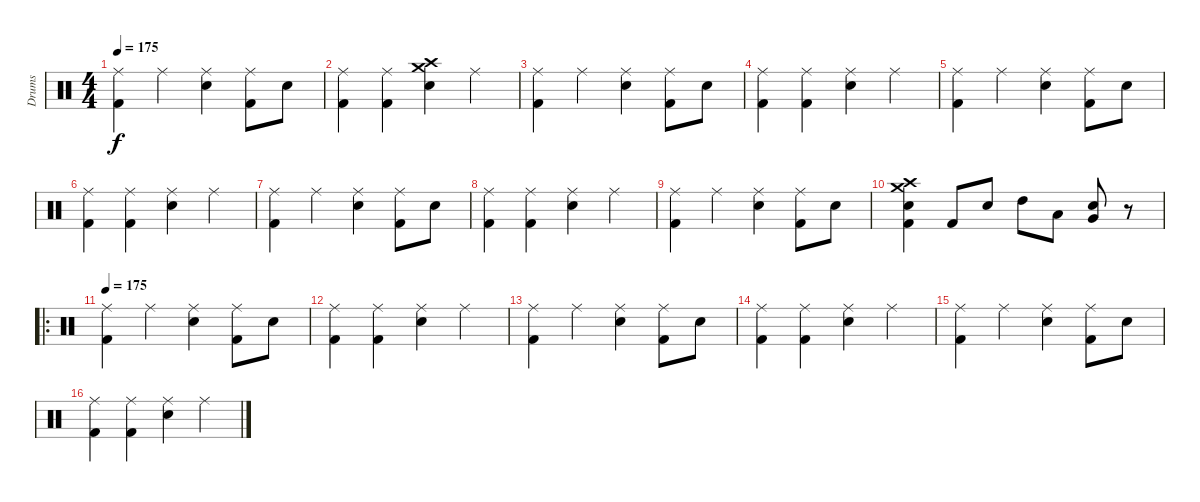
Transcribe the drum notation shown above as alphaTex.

\track ("Drums" "Drums") {instrument percussion}
\staff {score}
\articulation defaults
\ts (4 4)
\tempo 175
\clef neutral
\ks c
("Ride (middle)" "Kick (hit) 2").4{dy f} "Ride (middle)".4 ("Ride (middle)" "Snare (hit) 2").4 ("Ride (middle)" "Kick (hit) 2").8 "Snare (hit) 2".8 |
("Ride (middle)" "Kick (hit) 2").4 ("Ride (middle)" "Kick (hit) 2").4 ("Crash medium (hit)" "Crash high (hit)" "Snare (hit) 2").4 "Ride (middle)".4 |
("Ride (middle)" "Kick (hit) 2").4 "Ride (middle)".4 ("Ride (middle)" "Snare (hit) 2").4 ("Ride (middle)" "Kick (hit) 2").8 "Snare (hit) 2".8 |
("Ride (middle)" "Kick (hit) 2").4 ("Ride (middle)" "Kick (hit) 2").4 ("Ride (middle)" "Snare (hit) 2").4 "Ride (middle)".4 |
("Ride (middle)" "Kick (hit) 2").4 "Ride (middle)".4 ("Ride (middle)" "Snare (hit) 2").4 ("Ride (middle)" "Kick (hit) 2").8 "Snare (hit) 2".8 |
("Ride (middle)" "Kick (hit) 2").4 ("Ride (middle)" "Kick (hit) 2").4 ("Ride (middle)" "Snare (hit) 2").4 "Ride (middle)".4 |
("Ride (middle)" "Kick (hit) 2").4 "Ride (middle)".4 ("Ride (middle)" "Snare (hit) 2").4 ("Ride (middle)" "Kick (hit) 2").8 "Snare (hit) 2".8 |
("Ride (middle)" "Kick (hit) 2").4 ("Ride (middle)" "Kick (hit) 2").4 ("Ride (middle)" "Snare (hit) 2").4 "Ride (middle)".4 |
("Ride (middle)" "Kick (hit) 2").4 "Ride (middle)".4 ("Ride (middle)" "Snare (hit) 2").4 ("Ride (middle)" "Kick (hit) 2").8 "Snare (hit) 2".8 |
("Crash medium (hit)" "Crash high (hit)" "Snare (hit) 2" "Kick (hit) 2").4 "Kick (hit) 2".8 "Snare (hit) 2".8 "High Tom (hit)".8 "Low Tom (hit)".8 ("Snare (hit) 2" "Very Low Tom (hit)").8 r.8 |
\ro
\tempo 175
("Ride (middle)" "Kick (hit) 2").4 "Ride (middle)".4 ("Ride (middle)" "Snare (hit) 2").4 ("Ride (middle)" "Kick (hit) 2").8 "Snare (hit) 2".8 |
("Ride (middle)" "Kick (hit) 2").4 ("Ride (middle)" "Kick (hit) 2").4 ("Ride (middle)" "Snare (hit) 2").4 "Ride (middle)".4 |
("Ride (middle)" "Kick (hit) 2").4 "Ride (middle)".4 ("Ride (middle)" "Snare (hit) 2").4 ("Ride (middle)" "Kick (hit) 2").8 "Snare (hit) 2".8 |
("Ride (middle)" "Kick (hit) 2").4 ("Ride (middle)" "Kick (hit) 2").4 ("Ride (middle)" "Snare (hit) 2").4 "Ride (middle)".4 |
("Ride (middle)" "Kick (hit) 2").4 "Ride (middle)".4 ("Ride (middle)" "Snare (hit) 2").4 ("Ride (middle)" "Kick (hit) 2").8 "Snare (hit) 2".8 |
("Ride (middle)" "Kick (hit) 2").4 ("Ride (middle)" "Kick (hit) 2").4 ("Ride (middle)" "Snare (hit) 2").4 "Ride (middle)".4
